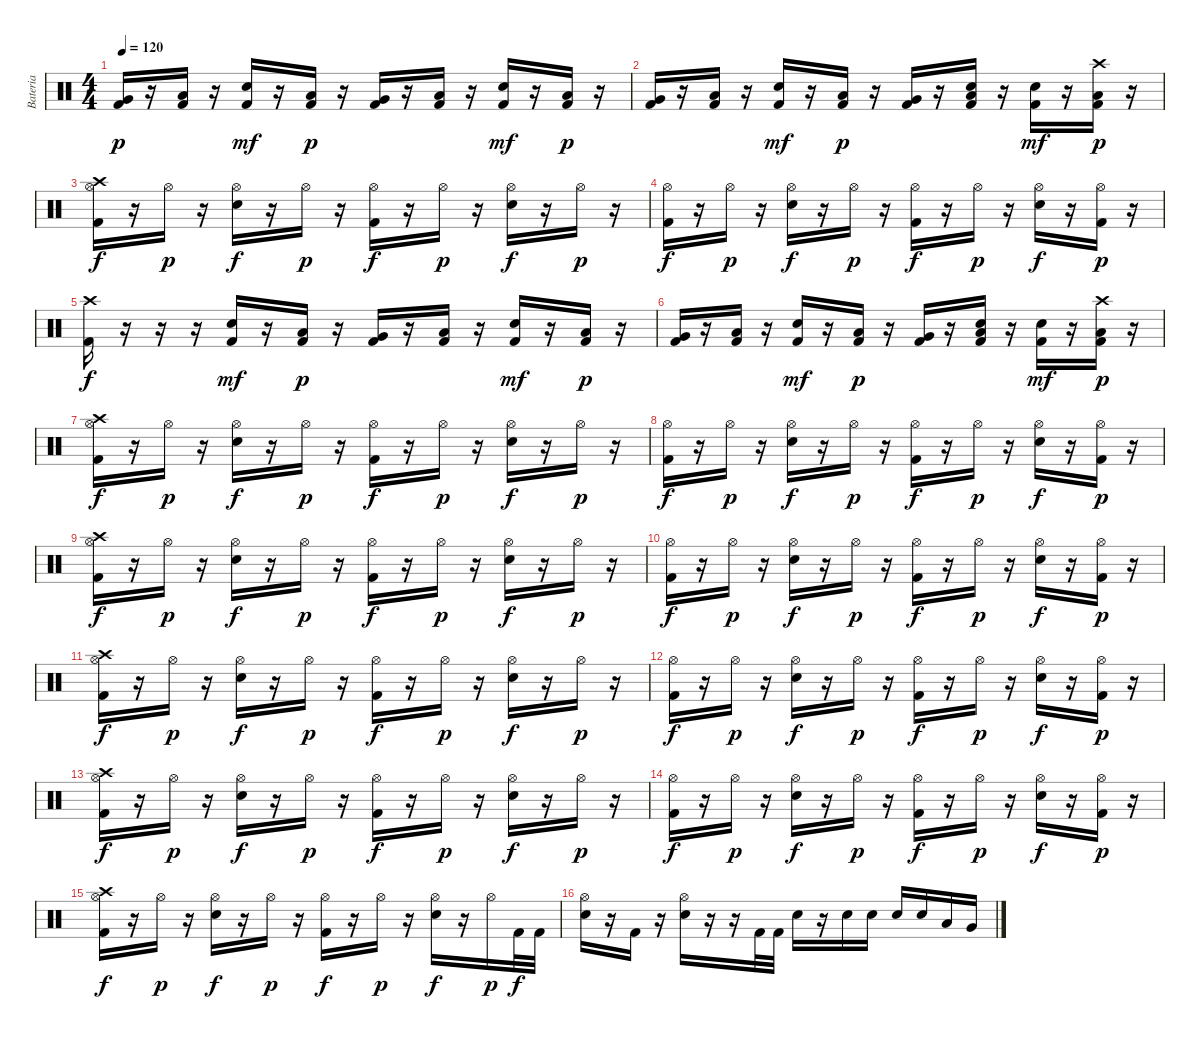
\track ("Bateria" "Bateria") {instrument percussion}
\staff {score}
\articulation defaults
\ts (4 4)
\tempo 120
\clef neutral
\ks c
("Kick (hit) 2" "Very Low Tom (hit)").16{dy p} r.16 ("Kick (hit) 2" "Low Floor Tom (hit)").16 r.16 ("Kick (hit) 2" "Electric Snare (hit)").16{dy mf} r.16 ("Kick (hit) 2" "Low Tom (hit)").16{dy p} r.16 ("Kick (hit) 2" "Very Low Tom (hit)").16 r.16 ("Kick (hit) 2" "Low Floor Tom (hit)").16 r.16 ("Kick (hit) 2" "Electric Snare (hit)").16{dy mf} r.16 ("Kick (hit) 2" "Low Tom (hit)").16{dy p} r.16 |
("Kick (hit) 2" "Very Low Tom (hit)").16 r.16 ("Kick (hit) 2" "Low Floor Tom (hit)").16 r.16 ("Kick (hit) 2" "Electric Snare (hit)").16{dy mf} r.16 ("Kick (hit) 2" "Low Tom (hit)").16{dy p} r.16 ("Kick (hit) 2" "Very Low Tom (hit)").16 r.16 ("Kick (hit) 2" "Low Floor Tom (hit)" "Electric Snare (hit)").16 r.16 ("Kick (hit) 2" "Electric Snare (hit)").16{dy mf} r.16 ("Kick (hit) 2" "Low Tom (hit)" "Crash high (hit)").16{dy p} r.16 |
("Kick (hit) 2" "Crash high (hit)" "Hi-Hat (open)").16{dy f} r.16 "Hi-Hat (open)".16{dy p} r.16 ("Electric Snare (hit)" "Hi-Hat (open)").16{dy f} r.16 "Hi-Hat (open)".16{dy p} r.16 ("Kick (hit) 2" "Hi-Hat (open)").16{dy f} r.16 "Hi-Hat (open)".16{dy p} r.16 ("Electric Snare (hit)" "Hi-Hat (open)").16{dy f} r.16 "Hi-Hat (open)".16{dy p} r.16 |
("Kick (hit) 2" "Hi-Hat (open)").16{dy f} r.16 "Hi-Hat (open)".16{dy p} r.16 ("Electric Snare (hit)" "Hi-Hat (open)").16{dy f} r.16 "Hi-Hat (open)".16{dy p} r.16 ("Kick (hit) 2" "Hi-Hat (open)").16{dy f} r.16 "Hi-Hat (open)".16{dy p} r.16 ("Electric Snare (hit)" "Hi-Hat (open)").16{dy f} r.16 ("Kick (hit) 2" "Hi-Hat (open)").16{dy p} r.16 |
("Kick (hit) 2" "Crash high (hit)").16{dy f} r.16 r.16 r.16 ("Kick (hit) 2" "Electric Snare (hit)").16{dy mf} r.16 ("Kick (hit) 2" "Low Tom (hit)").16{dy p} r.16 ("Kick (hit) 2" "Very Low Tom (hit)").16 r.16 ("Kick (hit) 2" "Low Floor Tom (hit)").16 r.16 ("Kick (hit) 2" "Electric Snare (hit)").16{dy mf} r.16 ("Kick (hit) 2" "Low Tom (hit)").16{dy p} r.16 |
("Kick (hit) 2" "Very Low Tom (hit)").16 r.16 ("Kick (hit) 2" "Low Floor Tom (hit)").16 r.16 ("Kick (hit) 2" "Electric Snare (hit)").16{dy mf} r.16 ("Kick (hit) 2" "Low Tom (hit)").16{dy p} r.16 ("Kick (hit) 2" "Very Low Tom (hit)").16 r.16 ("Kick (hit) 2" "Low Floor Tom (hit)" "Electric Snare (hit)").16 r.16 ("Kick (hit) 2" "Electric Snare (hit)").16{dy mf} r.16 ("Kick (hit) 2" "Low Tom (hit)" "Crash high (hit)").16{dy p} r.16 |
("Kick (hit) 2" "Crash high (hit)" "Hi-Hat (open)").16{dy f} r.16 "Hi-Hat (open)".16{dy p} r.16 ("Electric Snare (hit)" "Hi-Hat (open)").16{dy f} r.16 "Hi-Hat (open)".16{dy p} r.16 ("Kick (hit) 2" "Hi-Hat (open)").16{dy f} r.16 "Hi-Hat (open)".16{dy p} r.16 ("Electric Snare (hit)" "Hi-Hat (open)").16{dy f} r.16 "Hi-Hat (open)".16{dy p} r.16 |
("Kick (hit) 2" "Hi-Hat (open)").16{dy f} r.16 "Hi-Hat (open)".16{dy p} r.16 ("Electric Snare (hit)" "Hi-Hat (open)").16{dy f} r.16 "Hi-Hat (open)".16{dy p} r.16 ("Kick (hit) 2" "Hi-Hat (open)").16{dy f} r.16 "Hi-Hat (open)".16{dy p} r.16 ("Electric Snare (hit)" "Hi-Hat (open)").16{dy f} r.16 ("Kick (hit) 2" "Hi-Hat (open)").16{dy p} r.16 |
("Kick (hit) 2" "Crash high (hit)" "Hi-Hat (open)").16{dy f} r.16 "Hi-Hat (open)".16{dy p} r.16 ("Electric Snare (hit)" "Hi-Hat (open)").16{dy f} r.16 "Hi-Hat (open)".16{dy p} r.16 ("Kick (hit) 2" "Hi-Hat (open)").16{dy f} r.16 "Hi-Hat (open)".16{dy p} r.16 ("Electric Snare (hit)" "Hi-Hat (open)").16{dy f} r.16 "Hi-Hat (open)".16{dy p} r.16 |
("Kick (hit) 2" "Hi-Hat (open)").16{dy f} r.16 "Hi-Hat (open)".16{dy p} r.16 ("Electric Snare (hit)" "Hi-Hat (open)").16{dy f} r.16 "Hi-Hat (open)".16{dy p} r.16 ("Kick (hit) 2" "Hi-Hat (open)").16{dy f} r.16 "Hi-Hat (open)".16{dy p} r.16 ("Electric Snare (hit)" "Hi-Hat (open)").16{dy f} r.16 ("Kick (hit) 2" "Hi-Hat (open)").16{dy p} r.16 |
("Kick (hit) 2" "Crash high (hit)" "Hi-Hat (open)").16{dy f} r.16 "Hi-Hat (open)".16{dy p} r.16 ("Electric Snare (hit)" "Hi-Hat (open)").16{dy f} r.16 "Hi-Hat (open)".16{dy p} r.16 ("Kick (hit) 2" "Hi-Hat (open)").16{dy f} r.16 "Hi-Hat (open)".16{dy p} r.16 ("Electric Snare (hit)" "Hi-Hat (open)").16{dy f} r.16 "Hi-Hat (open)".16{dy p} r.16 |
("Kick (hit) 2" "Hi-Hat (open)").16{dy f} r.16 "Hi-Hat (open)".16{dy p} r.16 ("Electric Snare (hit)" "Hi-Hat (open)").16{dy f} r.16 "Hi-Hat (open)".16{dy p} r.16 ("Kick (hit) 2" "Hi-Hat (open)").16{dy f} r.16 "Hi-Hat (open)".16{dy p} r.16 ("Electric Snare (hit)" "Hi-Hat (open)").16{dy f} r.16 ("Kick (hit) 2" "Hi-Hat (open)").16{dy p} r.16 |
("Kick (hit) 2" "Crash high (hit)" "Hi-Hat (open)").16{dy f} r.16 "Hi-Hat (open)".16{dy p} r.16 ("Electric Snare (hit)" "Hi-Hat (open)").16{dy f} r.16 "Hi-Hat (open)".16{dy p} r.16 ("Kick (hit) 2" "Hi-Hat (open)").16{dy f} r.16 "Hi-Hat (open)".16{dy p} r.16 ("Electric Snare (hit)" "Hi-Hat (open)").16{dy f} r.16 "Hi-Hat (open)".16{dy p} r.16 |
("Kick (hit) 2" "Hi-Hat (open)").16{dy f} r.16 "Hi-Hat (open)".16{dy p} r.16 ("Electric Snare (hit)" "Hi-Hat (open)").16{dy f} r.16 "Hi-Hat (open)".16{dy p} r.16 ("Kick (hit) 2" "Hi-Hat (open)").16{dy f} r.16 "Hi-Hat (open)".16{dy p} r.16 ("Electric Snare (hit)" "Hi-Hat (open)").16{dy f} r.16 ("Kick (hit) 2" "Hi-Hat (open)").16{dy p} r.16 |
("Kick (hit) 2" "Crash high (hit)" "Hi-Hat (open)").16{dy f} r.16 "Hi-Hat (open)".16{dy p} r.16 ("Electric Snare (hit)" "Hi-Hat (open)").16{dy f} r.16 "Hi-Hat (open)".16{dy p} r.16 ("Kick (hit) 2" "Hi-Hat (open)").16{dy f} r.16 "Hi-Hat (open)".16{dy p} r.16 ("Electric Snare (hit)" "Hi-Hat (open)").16{dy f} r.16 "Hi-Hat (open)".16{dy p} "Kick (hit) 2".32{dy f} "Kick (hit) 2".32 |
("Electric Snare (hit)" "Hi-Hat (open)").16 r.16 "Kick (hit) 2".16 r.16 ("Electric Snare (hit)" "Hi-Hat (open)").16 r.16 r.16 "Kick (hit) 2".32 "Kick (hit) 2".32 "Electric Snare (hit)".16 r.16 "Electric Snare (hit)".16 "Electric Snare (hit)".16 "Electric Snare (hit)".16 "Electric Snare (hit)".16 "Low Tom (hit)".16 "Very Low Tom (hit)".16
